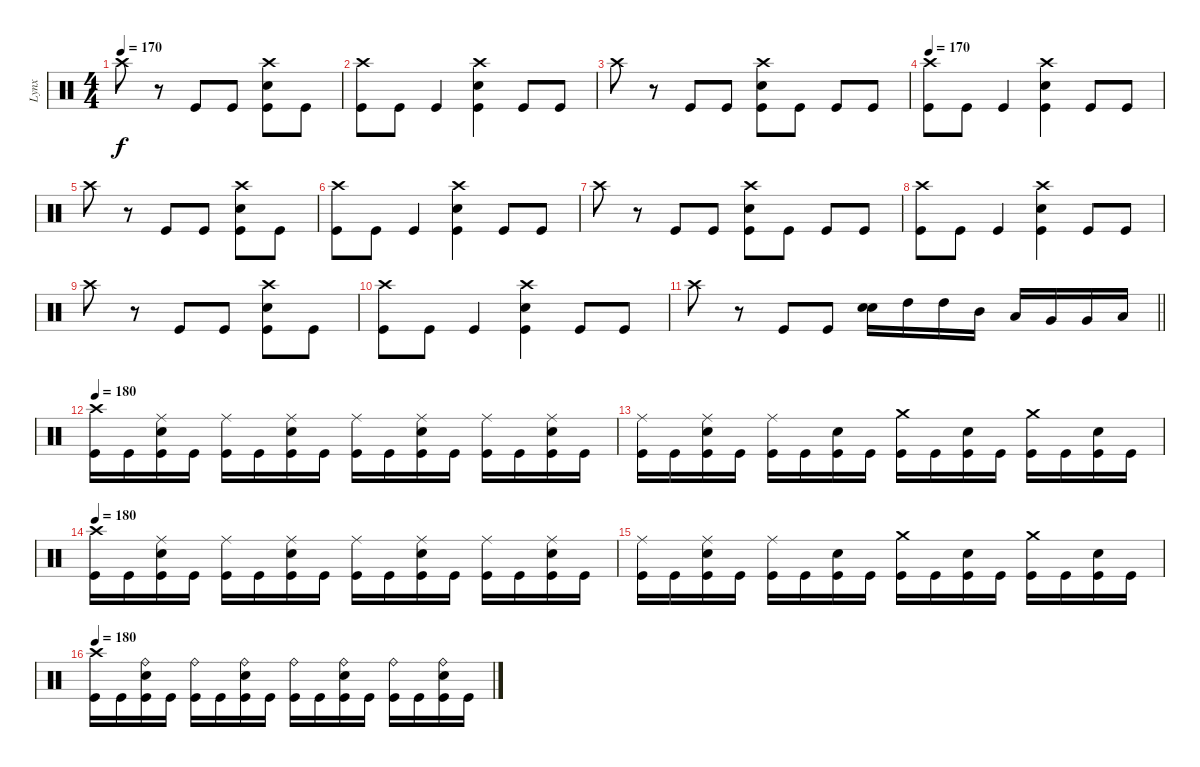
\track ("Lynx" "Lynx") {instrument percussion}
\staff {score}
\articulation defaults
\ts (4 4)
\tempo 170
\clef neutral
\ks c "Crash high (hit)".8{dy f}
r.8 "Kick (hit)".8 "Kick (hit)".8 ("Crash high (hit)" "Electric Snare (hit)" "Kick (hit)").8 "Kick (hit)".8 |
("Crash high (hit)" "Kick (hit)").8 "Kick (hit)".8 "Kick (hit)".4 ("Crash high (hit)" "Electric Snare (hit)" "Kick (hit)").4 "Kick (hit)".8 "Kick (hit)".8 |
"Crash high (hit)".8 r.8 "Kick (hit)".8 "Kick (hit)".8 ("Crash high (hit)" "Electric Snare (hit)" "Kick (hit)").8 "Kick (hit)".8 "Kick (hit)".8 "Kick (hit)".8 |
\tempo 170
("Crash high (hit)" "Kick (hit)").8 "Kick (hit)".8 "Kick (hit)".4 ("Crash high (hit)" "Electric Snare (hit)" "Kick (hit)").4 "Kick (hit)".8 "Kick (hit)".8 |
"Crash high (hit)".8 r.8 "Kick (hit)".8 "Kick (hit)".8 ("Crash high (hit)" "Electric Snare (hit)" "Kick (hit)").8 "Kick (hit)".8 |
("Crash high (hit)" "Kick (hit)").8 "Kick (hit)".8 "Kick (hit)".4 ("Crash high (hit)" "Electric Snare (hit)" "Kick (hit)").4 "Kick (hit)".8 "Kick (hit)".8 |
"Crash high (hit)".8 r.8 "Kick (hit)".8 "Kick (hit)".8 ("Crash high (hit)" "Electric Snare (hit)" "Kick (hit)").8 "Kick (hit)".8 "Kick (hit)".8 "Kick (hit)".8 |
("Crash high (hit)" "Kick (hit)").8 "Kick (hit)".8 "Kick (hit)".4 ("Crash high (hit)" "Electric Snare (hit)" "Kick (hit)").4 "Kick (hit)".8 "Kick (hit)".8 |
"Crash high (hit)".8 r.8 "Kick (hit)".8 "Kick (hit)".8 ("Crash high (hit)" "Electric Snare (hit)" "Kick (hit)").8 "Kick (hit)".8 |
("Crash high (hit)" "Kick (hit)").8 "Kick (hit)".8 "Kick (hit)".4 ("Crash high (hit)" "Electric Snare (hit)" "Kick (hit)").4 "Kick (hit)".8 "Kick (hit)".8 |
\barLineRight lightlight "Crash high (hit)".8
r.8 "Kick (hit)".8 "Kick (hit)".8 ("Electric Snare (hit)" "Electric Snare (hit)").16 "High Tom (hit)".16 "High Tom (hit)".16 "Mid Tom (hit)".16 "Low Tom (hit)".16 "Very Low Tom (hit)".16 "Very Low Tom (hit)".16 "Low Floor Tom (hit)".16 |
\section ("" "")
\tempo 170
\tempo 180
("Kick (hit)" "Crash high (hit)").16 "Kick (hit)".16 ("Kick (hit)" "Electric Snare (hit)" "Ride (middle)").16 "Kick (hit)".16 ("Kick (hit)" "Ride (middle)").16 "Kick (hit)".16 ("Kick (hit)" "Electric Snare (hit)" "Ride (middle)").16 "Kick (hit)".16 ("Kick (hit)" "Ride (middle)").16 "Kick (hit)".16 ("Kick (hit)" "Electric Snare (hit)" "Ride (middle)").16 "Kick (hit)".16 ("Kick (hit)" "Ride (middle)").16 "Kick (hit)".16 ("Kick (hit)" "Electric Snare (hit)" "Ride (middle)").16 "Kick (hit)".16 |
("Kick (hit)" "Ride (middle)").16 "Kick (hit)".16 ("Kick (hit)" "Electric Snare (hit)" "Ride (middle)").16 "Kick (hit)".16 ("Kick (hit)" "Ride (middle)").16 "Kick (hit)".16 ("Kick (hit)" "Electric Snare (hit)").16 "Kick (hit)".16 ("Kick (hit)" "Crash medium (hit)").16 "Kick (hit)".16 ("Kick (hit)" "Electric Snare (hit)").16 "Kick (hit)".16 ("Kick (hit)" "Crash medium (hit)").16 "Kick (hit)".16 ("Kick (hit)" "Electric Snare (hit)").16 "Kick (hit)".16 |
\tempo 170
\tempo 180
("Kick (hit)" "Crash high (hit)").16 "Kick (hit)".16 ("Kick (hit)" "Electric Snare (hit)" "Ride (middle)").16 "Kick (hit)".16 ("Kick (hit)" "Ride (middle)").16 "Kick (hit)".16 ("Kick (hit)" "Electric Snare (hit)" "Ride (middle)").16 "Kick (hit)".16 ("Kick (hit)" "Ride (middle)").16 "Kick (hit)".16 ("Kick (hit)" "Electric Snare (hit)" "Ride (middle)").16 "Kick (hit)".16 ("Kick (hit)" "Ride (middle)").16 "Kick (hit)".16 ("Kick (hit)" "Electric Snare (hit)" "Ride (middle)").16 "Kick (hit)".16 |
("Kick (hit)" "Ride (middle)").16 "Kick (hit)".16 ("Kick (hit)" "Electric Snare (hit)" "Ride (middle)").16 "Kick (hit)".16 ("Kick (hit)" "Ride (middle)").16 "Kick (hit)".16 ("Kick (hit)" "Electric Snare (hit)").16 "Kick (hit)".16 ("Kick (hit)" "Crash medium (hit)").16 "Kick (hit)".16 ("Kick (hit)" "Electric Snare (hit)").16 "Kick (hit)".16 ("Kick (hit)" "Crash medium (hit)").16 "Kick (hit)".16 ("Kick (hit)" "Electric Snare (hit)").16 "Kick (hit)".16 |
\tempo 170
\tempo 180
("Kick (hit)" "Crash high (hit)").16 "Kick (hit)".16 ("Kick (hit)" "Electric Snare (hit)" "Ride (bell)").16 "Kick (hit)".16 ("Kick (hit)" "Ride (bell)").16 "Kick (hit)".16 ("Kick (hit)" "Electric Snare (hit)" "Ride (bell)").16 "Kick (hit)".16 ("Kick (hit)" "Ride (bell)").16 "Kick (hit)".16 ("Kick (hit)" "Electric Snare (hit)" "Ride (bell)").16 "Kick (hit)".16 ("Kick (hit)" "Ride (bell)").16 "Kick (hit)".16 ("Kick (hit)" "Electric Snare (hit)" "Ride (bell)").16 "Kick (hit)".16
